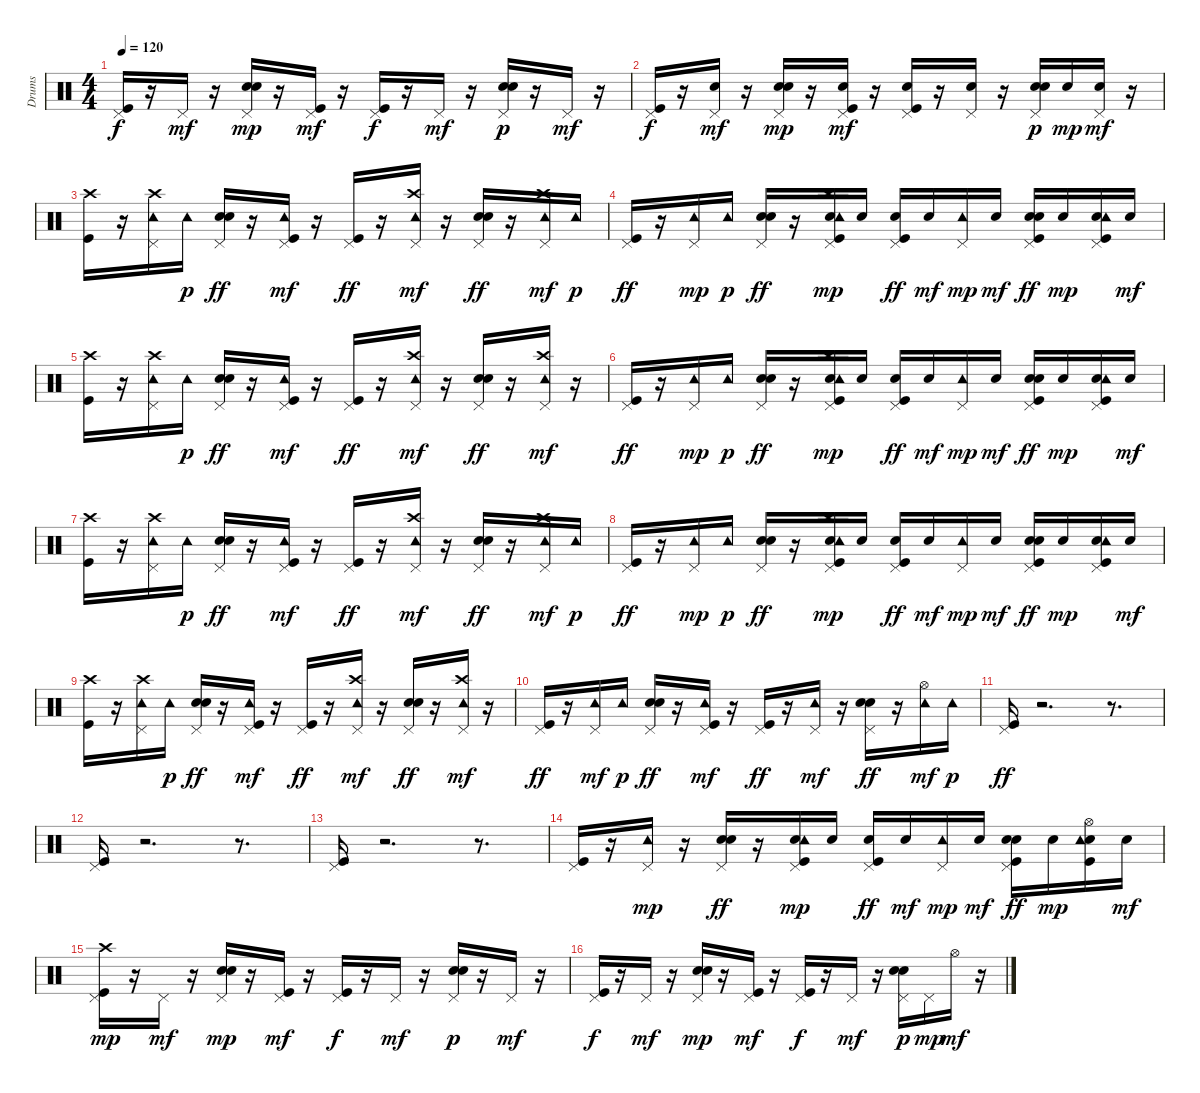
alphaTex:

\track ("Drums   " "Drums   ") {instrument percussion}
\staff {score}
\articulation defaults
\ts (4 4)
\tempo 120
\clef neutral
\ks c
("Kick (hit)" "Pedal Hi-Hat (hit)").16{dy f} r.16 "Pedal Hi-Hat (hit)".16{dy mf} r.16 ("Electric Snare (hit)" "Pedal Hi-Hat (hit)" "Hand Clap (hit)").16{dy mp} r.16 ("Kick (hit)" "Pedal Hi-Hat (hit)").16{dy mf} r.16 ("Kick (hit)" "Pedal Hi-Hat (hit)").16{dy f} r.16 "Pedal Hi-Hat (hit)".16{dy mf} r.16 ("Electric Snare (hit)" "Pedal Hi-Hat (hit)" "Hand Clap (hit)").16{dy p} r.16 "Pedal Hi-Hat (hit)".16{dy mf} r.16 |
("Kick (hit)" "Pedal Hi-Hat (hit)").16{dy f} r.16 ("Electric Snare (hit)" "Pedal Hi-Hat (hit)").16{dy mf} r.16 ("Electric Snare (hit)" "Pedal Hi-Hat (hit)" "Hand Clap (hit)").16{dy mp} r.16 ("Kick (hit)" "Electric Snare (hit)" "Pedal Hi-Hat (hit)").16{dy mf} r.16 ("Kick (hit)" "Electric Snare (hit)" "Pedal Hi-Hat (hit)").16 r.16 ("Electric Snare (hit)" "Pedal Hi-Hat (hit)").16 r.16 ("Electric Snare (hit)" "Pedal Hi-Hat (hit)" "Hand Clap (hit)").16{dy p} "Electric Snare (hit)".16{dy mp} ("Electric Snare (hit)" "Pedal Hi-Hat (hit)").16{dy mf} r.16 |
("Kick (hit)" "Crash high (hit)").16 r.16 ("Crash high (hit)" "Pedal Hi-Hat (hit)" "Tambourine (hit)").16 "Tambourine (hit)".16{dy p} ("Electric Snare (hit)" "Pedal Hi-Hat (hit)" "Hand Clap (hit)").16{dy ff} r.16 ("Kick (hit)" "Pedal Hi-Hat (hit)" "Tambourine (hit)").16{dy mf} r.16 ("Kick (hit)" "Pedal Hi-Hat (hit)").16{dy ff} r.16 ("Crash high (hit)" "Pedal Hi-Hat (hit)" "Tambourine (hit)").16{dy mf} r.16 ("Electric Snare (hit)" "Pedal Hi-Hat (hit)" "Hand Clap (hit)").16{dy ff} r.16 ("Crash high (hit)" "Pedal Hi-Hat (hit)" "Tambourine (hit)").16{dy mf} "Tambourine (hit)".16{dy p} |
("Kick (hit)" "Pedal Hi-Hat (hit)").16{dy ff} r.16 ("Pedal Hi-Hat (hit)" "Tambourine (hit)").16{dy mp} "Tambourine (hit)".16{dy p} ("Electric Snare (hit)" "Pedal Hi-Hat (hit)" "Hand Clap (hit)").16{dy ff} r.16 ("Kick (hit)" "Crash high (hit)" "Electric Snare (hit)" "Pedal Hi-Hat (hit)" "Tambourine (hit)").16{dy mp} "Electric Snare (hit)".16 ("Kick (hit)" "Electric Snare (hit)" "Pedal Hi-Hat (hit)").16{dy ff} "Electric Snare (hit)".16{dy mf} ("Pedal Hi-Hat (hit)" "Tambourine (hit)").16{dy mp} "Electric Snare (hit)".16{dy mf} ("Kick (hit)" "Electric Snare (hit)" "Pedal Hi-Hat (hit)" "Hand Clap (hit)").16{dy ff} "Electric Snare (hit)".16{dy mp} ("Kick (hit)" "Electric Snare (hit)" "Pedal Hi-Hat (hit)" "Tambourine (hit)").16 "Electric Snare (hit)".16{dy mf} |
("Kick (hit)" "Crash high (hit)").16 r.16 ("Crash high (hit)" "Pedal Hi-Hat (hit)" "Tambourine (hit)").16 "Tambourine (hit)".16{dy p} ("Electric Snare (hit)" "Pedal Hi-Hat (hit)" "Hand Clap (hit)").16{dy ff} r.16 ("Kick (hit)" "Pedal Hi-Hat (hit)" "Tambourine (hit)").16{dy mf} r.16 ("Kick (hit)" "Pedal Hi-Hat (hit)").16{dy ff} r.16 ("Crash high (hit)" "Pedal Hi-Hat (hit)" "Tambourine (hit)").16{dy mf} r.16 ("Electric Snare (hit)" "Pedal Hi-Hat (hit)" "Hand Clap (hit)").16{dy ff} r.16 ("Crash high (hit)" "Pedal Hi-Hat (hit)" "Tambourine (hit)").16{dy mf} r.16 |
("Kick (hit)" "Pedal Hi-Hat (hit)").16{dy ff} r.16 ("Pedal Hi-Hat (hit)" "Tambourine (hit)").16{dy mp} "Tambourine (hit)".16{dy p} ("Electric Snare (hit)" "Pedal Hi-Hat (hit)" "Hand Clap (hit)").16{dy ff} r.16 ("Kick (hit)" "Crash high (hit)" "Electric Snare (hit)" "Pedal Hi-Hat (hit)" "Tambourine (hit)").16{dy mp} "Electric Snare (hit)".16 ("Kick (hit)" "Electric Snare (hit)" "Pedal Hi-Hat (hit)").16{dy ff} "Electric Snare (hit)".16{dy mf} ("Pedal Hi-Hat (hit)" "Tambourine (hit)").16{dy mp} "Electric Snare (hit)".16{dy mf} ("Kick (hit)" "Electric Snare (hit)" "Pedal Hi-Hat (hit)" "Hand Clap (hit)").16{dy ff} "Electric Snare (hit)".16{dy mp} ("Kick (hit)" "Electric Snare (hit)" "Pedal Hi-Hat (hit)" "Tambourine (hit)").16 "Electric Snare (hit)".16{dy mf} |
("Kick (hit)" "Crash high (hit)").16 r.16 ("Crash high (hit)" "Pedal Hi-Hat (hit)" "Tambourine (hit)").16 "Tambourine (hit)".16{dy p} ("Electric Snare (hit)" "Pedal Hi-Hat (hit)" "Hand Clap (hit)").16{dy ff} r.16 ("Kick (hit)" "Pedal Hi-Hat (hit)" "Tambourine (hit)").16{dy mf} r.16 ("Kick (hit)" "Pedal Hi-Hat (hit)").16{dy ff} r.16 ("Crash high (hit)" "Pedal Hi-Hat (hit)" "Tambourine (hit)").16{dy mf} r.16 ("Electric Snare (hit)" "Pedal Hi-Hat (hit)" "Hand Clap (hit)").16{dy ff} r.16 ("Crash high (hit)" "Pedal Hi-Hat (hit)" "Tambourine (hit)").16{dy mf} "Tambourine (hit)".16{dy p} |
("Kick (hit)" "Pedal Hi-Hat (hit)").16{dy ff} r.16 ("Pedal Hi-Hat (hit)" "Tambourine (hit)").16{dy mp} "Tambourine (hit)".16{dy p} ("Electric Snare (hit)" "Pedal Hi-Hat (hit)" "Hand Clap (hit)").16{dy ff} r.16 ("Kick (hit)" "Crash high (hit)" "Electric Snare (hit)" "Pedal Hi-Hat (hit)" "Tambourine (hit)").16{dy mp} "Electric Snare (hit)".16 ("Kick (hit)" "Electric Snare (hit)" "Pedal Hi-Hat (hit)").16{dy ff} "Electric Snare (hit)".16{dy mf} ("Pedal Hi-Hat (hit)" "Tambourine (hit)").16{dy mp} "Electric Snare (hit)".16{dy mf} ("Kick (hit)" "Electric Snare (hit)" "Pedal Hi-Hat (hit)" "Hand Clap (hit)").16{dy ff} "Electric Snare (hit)".16{dy mp} ("Kick (hit)" "Electric Snare (hit)" "Pedal Hi-Hat (hit)" "Tambourine (hit)").16 "Electric Snare (hit)".16{dy mf} |
("Kick (hit)" "Crash high (hit)").16 r.16 ("Crash high (hit)" "Pedal Hi-Hat (hit)" "Tambourine (hit)").16 "Tambourine (hit)".16{dy p} ("Electric Snare (hit)" "Pedal Hi-Hat (hit)" "Hand Clap (hit)").16{dy ff} r.16 ("Kick (hit)" "Pedal Hi-Hat (hit)" "Tambourine (hit)").16{dy mf} r.16 ("Kick (hit)" "Pedal Hi-Hat (hit)").16{dy ff} r.16 ("Crash high (hit)" "Pedal Hi-Hat (hit)" "Tambourine (hit)").16{dy mf} r.16 ("Electric Snare (hit)" "Pedal Hi-Hat (hit)" "Hand Clap (hit)").16{dy ff} r.16 ("Crash high (hit)" "Pedal Hi-Hat (hit)" "Tambourine (hit)").16{dy mf} r.16 |
("Kick (hit)" "Pedal Hi-Hat (hit)").16{dy ff} r.16 ("Pedal Hi-Hat (hit)" "Tambourine (hit)").16{dy mf} "Tambourine (hit)".16{dy p} ("Electric Snare (hit)" "Pedal Hi-Hat (hit)" "Hand Clap (hit)").16{dy ff} r.16 ("Kick (hit)" "Pedal Hi-Hat (hit)" "Tambourine (hit)").16{dy mf} r.16 ("Kick (hit)" "Pedal Hi-Hat (hit)").16{dy ff} r.16 ("Pedal Hi-Hat (hit)" "Tambourine (hit)").16{dy mf} r.16 ("Electric Snare (hit)" "Pedal Hi-Hat (hit)" "Hand Clap (hit)").16{dy ff} r.16 ("Hi-Hat (open)" "Tambourine (hit)").16{dy mf} "Tambourine (hit)".16{dy p} |
("Kick (hit)" "Pedal Hi-Hat (hit)").16{dy ff} r.2{d} r.8{d} |
("Kick (hit)" "Pedal Hi-Hat (hit)").16 r.2{d} r.8{d} |
("Kick (hit)" "Pedal Hi-Hat (hit)").16 r.2{d} r.8{d} |
("Kick (hit)" "Pedal Hi-Hat (hit)").16 r.16 ("Pedal Hi-Hat (hit)" "Tambourine (hit)").16{dy mp} r.16 ("Electric Snare (hit)" "Pedal Hi-Hat (hit)" "Hand Clap (hit)").16{dy ff} r.16 ("Kick (hit)" "Electric Snare (hit)" "Pedal Hi-Hat (hit)" "Tambourine (hit)").16{dy mp} "Electric Snare (hit)".16 ("Kick (hit)" "Electric Snare (hit)" "Pedal Hi-Hat (hit)").16{dy ff} "Electric Snare (hit)".16{dy mf} ("Pedal Hi-Hat (hit)" "Tambourine (hit)").16{dy mp} "Electric Snare (hit)".16{dy mf} ("Kick (hit)" "Electric Snare (hit)" "Pedal Hi-Hat (hit)" "Hand Clap (hit)").16{dy ff} "Electric Snare (hit)".16{dy mp} ("Kick (hit)" "Hi-Hat (open)" "Electric Snare (hit)" "Tambourine (hit)").16 "Electric Snare (hit)".16{dy mf} |
("Kick (hit)" "Crash high (hit)" "Pedal Hi-Hat (hit)").16{dy mp} r.16 "Pedal Hi-Hat (hit)".16{dy mf} r.16 ("Electric Snare (hit)" "Pedal Hi-Hat (hit)" "Hand Clap (hit)").16{dy mp} r.16 ("Kick (hit)" "Pedal Hi-Hat (hit)").16{dy mf} r.16 ("Kick (hit)" "Pedal Hi-Hat (hit)").16{dy f} r.16 "Pedal Hi-Hat (hit)".16{dy mf} r.16 ("Electric Snare (hit)" "Pedal Hi-Hat (hit)" "Hand Clap (hit)").16{dy p} r.16 "Pedal Hi-Hat (hit)".16{dy mf} r.16 |
("Kick (hit)" "Pedal Hi-Hat (hit)").16{dy f} r.16 "Pedal Hi-Hat (hit)".16{dy mf} r.16 ("Electric Snare (hit)" "Pedal Hi-Hat (hit)" "Hand Clap (hit)").16{dy mp} r.16 ("Kick (hit)" "Pedal Hi-Hat (hit)").16{dy mf} r.16 ("Kick (hit)" "Pedal Hi-Hat (hit)").16{dy f} r.16 "Pedal Hi-Hat (hit)".16{dy mf} r.16 ("Electric Snare (hit)" "Pedal Hi-Hat (hit)" "Hand Clap (hit)").16{dy p} "Pedal Hi-Hat (hit)".16{dy mp} "Hi-Hat (open)".16{dy mf} r.16
